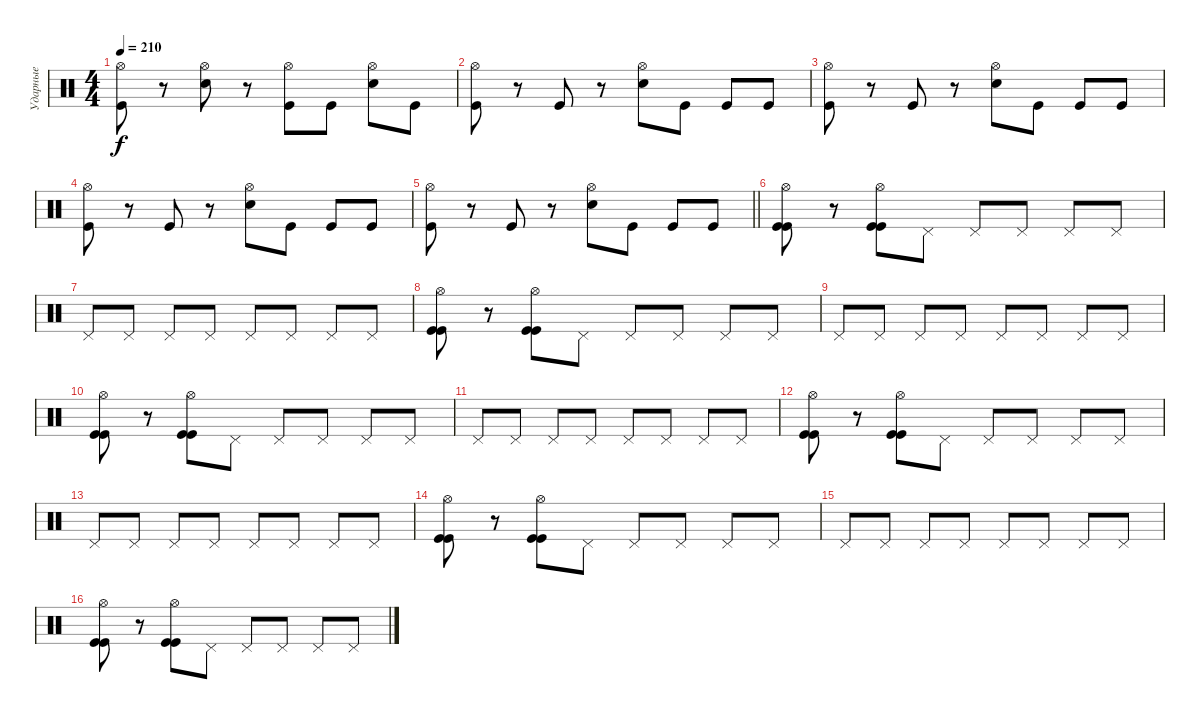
\track ("Ударные" "Ударные") {instrument percussion}
\staff {score}
\articulation defaults
\ts (4 4)
\tempo 210
\clef neutral
\ks c
("Hi-Hat (open)" "Kick (hit)").8{dy f} r.8 ("Hi-Hat (open)" "Electric Snare (hit)").8 r.8 ("Hi-Hat (open)" "Kick (hit)").8 "Kick (hit)".8 ("Hi-Hat (open)" "Electric Snare (hit)").8 "Kick (hit)".8 |
("Hi-Hat (open)" "Kick (hit)").8 r.8 "Kick (hit)".8 r.8 ("Hi-Hat (open)" "Electric Snare (hit)").8 "Kick (hit)".8 "Kick (hit)".8 "Kick (hit)".8 |
("Hi-Hat (open)" "Kick (hit)").8 r.8 "Kick (hit)".8 r.8 ("Hi-Hat (open)" "Electric Snare (hit)").8 "Kick (hit)".8 "Kick (hit)".8 "Kick (hit)".8 |
("Hi-Hat (open)" "Kick (hit)").8 r.8 "Kick (hit)".8 r.8 ("Hi-Hat (open)" "Electric Snare (hit)").8 "Kick (hit)".8 "Kick (hit)".8 "Kick (hit)".8 |
\barLineRight lightlight
("Hi-Hat (open)" "Kick (hit)").8 r.8 "Kick (hit)".8 r.8 ("Hi-Hat (open)" "Electric Snare (hit)").8 "Kick (hit)".8 "Kick (hit)".8 "Kick (hit)".8 |
("Hi-Hat (open)" "Kick (hit)" "Kick (hit)").8 r.8 ("Hi-Hat (open)" "Kick (hit)" "Kick (hit)").8 "Pedal Hi-Hat (hit)".8 "Pedal Hi-Hat (hit)".8 "Pedal Hi-Hat (hit)".8 "Pedal Hi-Hat (hit)".8 "Pedal Hi-Hat (hit)".8 |
"Pedal Hi-Hat (hit)".8 "Pedal Hi-Hat (hit)".8 "Pedal Hi-Hat (hit)".8 "Pedal Hi-Hat (hit)".8 "Pedal Hi-Hat (hit)".8 "Pedal Hi-Hat (hit)".8 "Pedal Hi-Hat (hit)".8 "Pedal Hi-Hat (hit)".8 |
("Hi-Hat (open)" "Kick (hit)" "Kick (hit)").8 r.8 ("Hi-Hat (open)" "Kick (hit)" "Kick (hit)").8 "Pedal Hi-Hat (hit)".8 "Pedal Hi-Hat (hit)".8 "Pedal Hi-Hat (hit)".8 "Pedal Hi-Hat (hit)".8 "Pedal Hi-Hat (hit)".8 |
"Pedal Hi-Hat (hit)".8 "Pedal Hi-Hat (hit)".8 "Pedal Hi-Hat (hit)".8 "Pedal Hi-Hat (hit)".8 "Pedal Hi-Hat (hit)".8 "Pedal Hi-Hat (hit)".8 "Pedal Hi-Hat (hit)".8 "Pedal Hi-Hat (hit)".8 |
("Hi-Hat (open)" "Kick (hit)" "Kick (hit)").8 r.8 ("Hi-Hat (open)" "Kick (hit)" "Kick (hit)").8 "Pedal Hi-Hat (hit)".8 "Pedal Hi-Hat (hit)".8 "Pedal Hi-Hat (hit)".8 "Pedal Hi-Hat (hit)".8 "Pedal Hi-Hat (hit)".8 |
"Pedal Hi-Hat (hit)".8 "Pedal Hi-Hat (hit)".8 "Pedal Hi-Hat (hit)".8 "Pedal Hi-Hat (hit)".8 "Pedal Hi-Hat (hit)".8 "Pedal Hi-Hat (hit)".8 "Pedal Hi-Hat (hit)".8 "Pedal Hi-Hat (hit)".8 |
("Hi-Hat (open)" "Kick (hit)" "Kick (hit)").8 r.8 ("Hi-Hat (open)" "Kick (hit)" "Kick (hit)").8 "Pedal Hi-Hat (hit)".8 "Pedal Hi-Hat (hit)".8 "Pedal Hi-Hat (hit)".8 "Pedal Hi-Hat (hit)".8 "Pedal Hi-Hat (hit)".8 |
"Pedal Hi-Hat (hit)".8 "Pedal Hi-Hat (hit)".8 "Pedal Hi-Hat (hit)".8 "Pedal Hi-Hat (hit)".8 "Pedal Hi-Hat (hit)".8 "Pedal Hi-Hat (hit)".8 "Pedal Hi-Hat (hit)".8 "Pedal Hi-Hat (hit)".8 |
("Hi-Hat (open)" "Kick (hit)" "Kick (hit)").8 r.8 ("Hi-Hat (open)" "Kick (hit)" "Kick (hit)").8 "Pedal Hi-Hat (hit)".8 "Pedal Hi-Hat (hit)".8 "Pedal Hi-Hat (hit)".8 "Pedal Hi-Hat (hit)".8 "Pedal Hi-Hat (hit)".8 |
"Pedal Hi-Hat (hit)".8 "Pedal Hi-Hat (hit)".8 "Pedal Hi-Hat (hit)".8 "Pedal Hi-Hat (hit)".8 "Pedal Hi-Hat (hit)".8 "Pedal Hi-Hat (hit)".8 "Pedal Hi-Hat (hit)".8 "Pedal Hi-Hat (hit)".8 |
("Hi-Hat (open)" "Kick (hit)" "Kick (hit)").8 r.8 ("Hi-Hat (open)" "Kick (hit)" "Kick (hit)").8 "Pedal Hi-Hat (hit)".8 "Pedal Hi-Hat (hit)".8 "Pedal Hi-Hat (hit)".8 "Pedal Hi-Hat (hit)".8 "Pedal Hi-Hat (hit)".8
